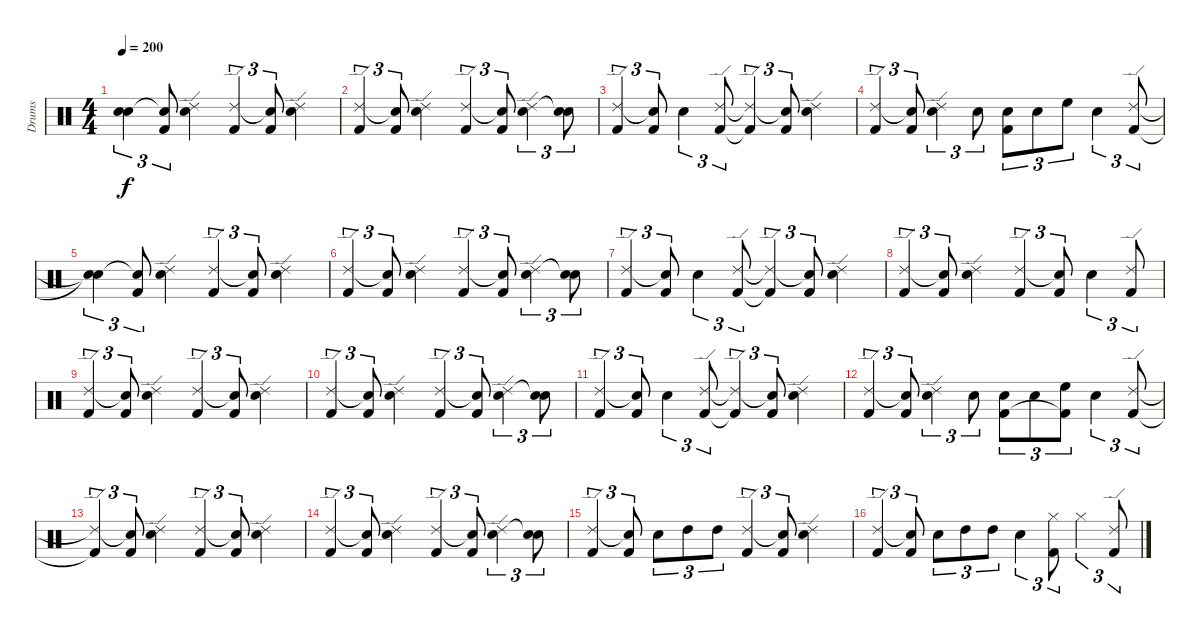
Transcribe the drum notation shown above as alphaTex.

\track ("Drums" "Drums") {instrument percussion}
\staff {score}
\articulation defaults
\ts (4 4)
\tempo 200
\clef neutral
\ks c
("Snare (hit)"{t} "Snare (hit)"{t}).4{tu (3 2) dy f} ("Snare (hit)"{t} "Kick (hit) 2").8{tu (3 2)} ("Ride (edge) 2" "Snare (hit) 2").4 ("Ride (edge) 2" "Kick (hit) 2").4{tu (3 2)} ("Snare (hit)"{t} "Kick (hit) 2").8{tu (3 2)} ("Ride (edge) 2" "Snare (hit) 2").4 |
("Ride (edge) 2" "Kick (hit) 2").4{tu (3 2)} ("Snare (hit)"{t} "Kick (hit) 2").8{tu (3 2)} ("Ride (edge) 2" "Snare (hit) 2").4 ("Ride (edge) 2" "Kick (hit) 2").4{tu (3 2)} ("Snare (hit)"{t} "Kick (hit) 2").8{tu (3 2)} ("Ride (edge) 2" "Snare (hit) 2").4{tu (3 2)} ("Snare (hit)"{t} "Snare (hit) 2").8{tu (3 2)} |
("Ride (edge) 2" "Kick (hit) 2").4{tu (3 2)} ("Snare (hit)"{t} "Kick (hit) 2").8{tu (3 2)} "Snare (hit) 2".4{tu (3 2)} ("Ride (edge) 2" "Kick (hit) 2").8{tu (3 2)} ("Ride (edge) 2"{t} "Kick (hit) 2"{t}).4{tu (3 2)} ("Snare (hit)"{t} "Kick (hit) 2").8{tu (3 2)} ("Ride (edge) 2" "Snare (hit) 2").4 |
("Ride (edge) 2" "Kick (hit) 2").4{tu (3 2)} ("Snare (hit)"{t} "Kick (hit) 2").8{tu (3 2)} ("Ride (edge) 2" "Snare (hit) 2").4{tu (3 2)} "Snare (hit) 2".8{tu (3 2)} ("Snare (hit) 2" "Kick (hit) 2").8{tu (3 2)} "Snare (hit) 2".8{tu (3 2)} "High Floor Tom (hit)".8{tu (3 2)} "Snare (hit) 2".4{tu (3 2)} ("Ride (edge) 2" "Kick (hit) 2").8{tu (3 2)} |
("Snare (hit)"{t} "Snare (hit)"{t}).4{tu (3 2)} ("Snare (hit)"{t} "Kick (hit) 2").8{tu (3 2)} ("Ride (edge) 2" "Snare (hit) 2").4 ("Ride (edge) 2" "Kick (hit) 2").4{tu (3 2)} ("Snare (hit)"{t} "Kick (hit) 2").8{tu (3 2)} ("Ride (edge) 2" "Snare (hit) 2").4 |
("Ride (edge) 2" "Kick (hit) 2").4{tu (3 2)} ("Snare (hit)"{t} "Kick (hit) 2").8{tu (3 2)} ("Ride (edge) 2" "Snare (hit) 2").4 ("Ride (edge) 2" "Kick (hit) 2").4{tu (3 2)} ("Snare (hit)"{t} "Kick (hit) 2").8{tu (3 2)} ("Ride (edge) 2" "Snare (hit) 2").4{tu (3 2)} ("Snare (hit)"{t} "Snare (hit) 2").8{tu (3 2)} |
("Ride (edge) 2" "Kick (hit) 2").4{tu (3 2)} ("Snare (hit)"{t} "Kick (hit) 2").8{tu (3 2)} "Snare (hit) 2".4{tu (3 2)} ("Ride (edge) 2" "Kick (hit) 2").8{tu (3 2)} ("Ride (edge) 2"{t} "Kick (hit) 2"{t}).4{tu (3 2)} ("Snare (hit)"{t} "Kick (hit) 2").8{tu (3 2)} ("Ride (edge) 2" "Snare (hit) 2").4 |
("Ride (edge) 2" "Kick (hit) 2").4{tu (3 2)} ("Snare (hit)"{t} "Kick (hit) 2").8{tu (3 2)} ("Ride (edge) 2" "Snare (hit) 2").4 ("Ride (edge) 2" "Kick (hit) 2").4{tu (3 2)} ("Snare (hit)"{t} "Kick (hit) 2").8{tu (3 2)} "Snare (hit) 2".4{tu (3 2)} ("Ride (edge) 2" "Kick (hit) 2").8{tu (3 2)} |
("Ride (edge) 2" "Kick (hit) 2").4{tu (3 2)} ("Snare (hit)"{t} "Kick (hit) 2").8{tu (3 2)} ("Ride (edge) 2" "Snare (hit) 2").4 ("Ride (edge) 2" "Kick (hit) 2").4{tu (3 2)} ("Snare (hit)"{t} "Kick (hit) 2").8{tu (3 2)} ("Ride (edge) 2" "Snare (hit) 2").4 |
("Ride (edge) 2" "Kick (hit) 2").4{tu (3 2)} ("Snare (hit)"{t} "Kick (hit) 2").8{tu (3 2)} ("Ride (edge) 2" "Snare (hit) 2").4 ("Ride (edge) 2" "Kick (hit) 2").4{tu (3 2)} ("Snare (hit)"{t} "Kick (hit) 2").8{tu (3 2)} ("Ride (edge) 2" "Snare (hit) 2").4{tu (3 2)} ("Snare (hit)"{t} "Snare (hit) 2").8{tu (3 2)} |
("Ride (edge) 2" "Kick (hit) 2").4{tu (3 2)} ("Snare (hit)"{t} "Kick (hit) 2").8{tu (3 2)} "Snare (hit) 2".4{tu (3 2)} ("Ride (edge) 2" "Kick (hit) 2").8{tu (3 2)} ("Ride (edge) 2"{t} "Kick (hit) 2"{t}).4{tu (3 2)} ("Snare (hit)"{t} "Kick (hit) 2").8{tu (3 2)} ("Ride (edge) 2" "Snare (hit) 2").4 |
("Ride (edge) 2" "Kick (hit) 2").4{tu (3 2)} ("Snare (hit)"{t} "Kick (hit) 2").8{tu (3 2)} ("Ride (edge) 2" "Snare (hit) 2").4{tu (3 2)} "Snare (hit) 2".8{tu (3 2)} ("Snare (hit) 2" "Kick (hit) 2").8{tu (3 2)} "Snare (hit) 2".8{tu (3 2)} ("High Floor Tom (hit)" "Kick (hit) 2"{t}).8{tu (3 2)} "Snare (hit) 2".4{tu (3 2)} ("Ride (edge) 2" "Kick (hit) 2").8{tu (3 2)} |
("Ride (edge) 2"{t} "Kick (hit) 2"{t}).4{tu (3 2)} ("Snare (hit)"{t} "Kick (hit) 2").8{tu (3 2)} ("Ride (edge) 2" "Snare (hit) 2").4 ("Ride (edge) 2" "Kick (hit) 2").4{tu (3 2)} ("Snare (hit)"{t} "Kick (hit) 2").8{tu (3 2)} ("Ride (edge) 2" "Snare (hit) 2").4 |
("Ride (edge) 2" "Kick (hit) 2").4{tu (3 2)} ("Snare (hit)"{t} "Kick (hit) 2").8{tu (3 2)} ("Ride (edge) 2" "Snare (hit) 2").4 ("Ride (edge) 2" "Kick (hit) 2").4{tu (3 2)} ("Snare (hit)"{t} "Kick (hit) 2").8{tu (3 2)} ("Ride (edge) 2" "Snare (hit) 2").4{tu (3 2)} ("Snare (hit)"{t} "Snare (hit) 2").8{tu (3 2)} |
("Ride (edge) 2" "Kick (hit) 2").4{tu (3 2)} ("Snare (hit)"{t} "Kick (hit) 2").8{tu (3 2)} "Snare (hit) 2".8{tu (3 2)} "High Tom (hit)".8{tu (3 2)} "High Tom (hit)".8{tu (3 2)} ("Ride (edge) 2" "Kick (hit) 2").4{tu (3 2)} ("Snare (hit)"{t} "Kick (hit) 2").8{tu (3 2)} ("Ride (edge) 2" "Snare (hit) 2").4 |
("Ride (edge) 2" "Kick (hit) 2").4{tu (3 2)} ("Snare (hit)"{t} "Kick (hit) 2").8{tu (3 2)} "Snare (hit) 2".8{tu (3 2)} "High Tom (hit)".8{tu (3 2)} "High Tom (hit)".8{tu (3 2)} "Snare (hit) 2".4{tu (3 2)} ("Hi-Hat (closed)" "Kick (hit) 2").8{tu (3 2)} "Hi-Hat (closed)".4{tu (3 2)} ("Ride (edge) 2" "Kick (hit) 2").8{tu (3 2)}
